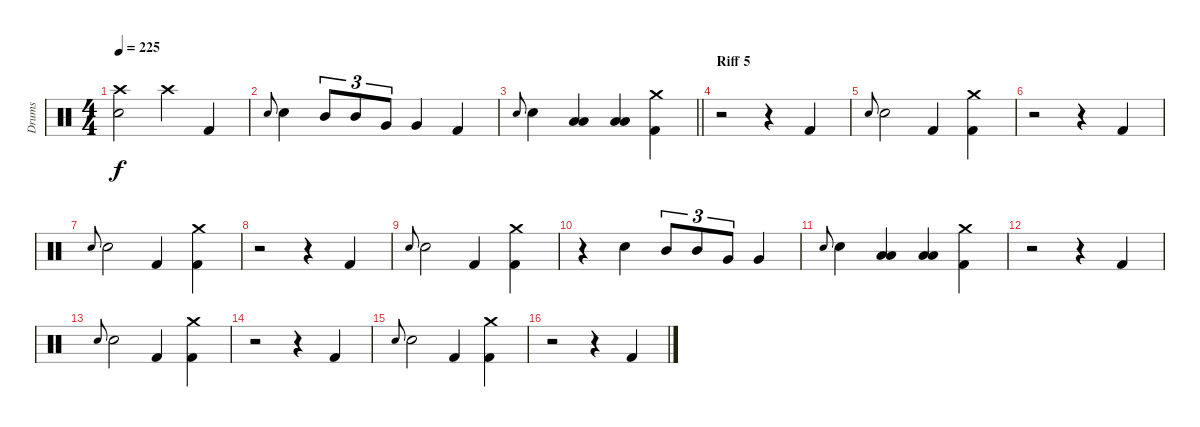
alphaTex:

\track ("Drums" "Drums") {instrument percussion}
\staff {score}
\articulation defaults
\ts (4 4)
\tempo 225
\clef neutral
\ks c
("Electric Snare (hit)" "Crash high (hit)").2{dy f} "Crash high (hit)".4 "Kick (hit) 2".4 |
"Electric Snare (hit)".8{gr onbeat} "Electric Snare (hit)".4 "Mid Tom (hit)".8{tu (3 2)} "Mid Tom (hit)".8{tu (3 2)} "Very Low Tom (hit)".8{tu (3 2)} "Very Low Tom (hit)".4 "Kick (hit) 2".4 |
\barLineRight lightlight "Electric Snare (hit)".8{gr onbeat} "Electric Snare (hit)".4
("Low Tom (hit)" "Low Floor Tom (hit)").4 ("Low Floor Tom (hit)" "Low Tom (hit)").4 ("Kick (hit) 2" "Crash medium (hit)").4 |
\section ("" "Riff 5")
r.2 r.4 "Kick (hit) 2".4 |
"Electric Snare (hit)".8{gr onbeat} "Electric Snare (hit)".2 "Kick (hit) 2".4 ("Crash medium (hit)" "Kick (hit) 2").4 |
r.2 r.4 "Kick (hit) 2".4 |
"Electric Snare (hit)".8{gr onbeat} "Electric Snare (hit)".2 "Kick (hit) 2".4 ("Crash medium (hit)" "Kick (hit) 2").4 |
r.2 r.4 "Kick (hit) 2".4 |
"Electric Snare (hit)".8{gr onbeat} "Electric Snare (hit)".2 "Kick (hit) 2".4 ("Crash medium (hit)" "Kick (hit) 2").4 |
r.4 "Electric Snare (hit)".4 "Mid Tom (hit)".8{tu (3 2)} "Mid Tom (hit)".8{tu (3 2)} "Very Low Tom (hit)".8{tu (3 2)} "Very Low Tom (hit)".4 |
"Electric Snare (hit)".8{gr onbeat} "Electric Snare (hit)".4 ("Low Tom (hit)" "Low Floor Tom (hit)").4 ("Low Floor Tom (hit)" "Low Tom (hit)").4 ("Kick (hit) 2" "Crash medium (hit)").4 |
r.2 r.4 "Kick (hit) 2".4 |
"Electric Snare (hit)".8{gr onbeat} "Electric Snare (hit)".2 "Kick (hit) 2".4 ("Crash medium (hit)" "Kick (hit) 2").4 |
r.2 r.4 "Kick (hit) 2".4 |
"Electric Snare (hit)".8{gr onbeat} "Electric Snare (hit)".2 "Kick (hit) 2".4 ("Crash medium (hit)" "Kick (hit) 2").4 |
r.2 r.4 "Kick (hit) 2".4
